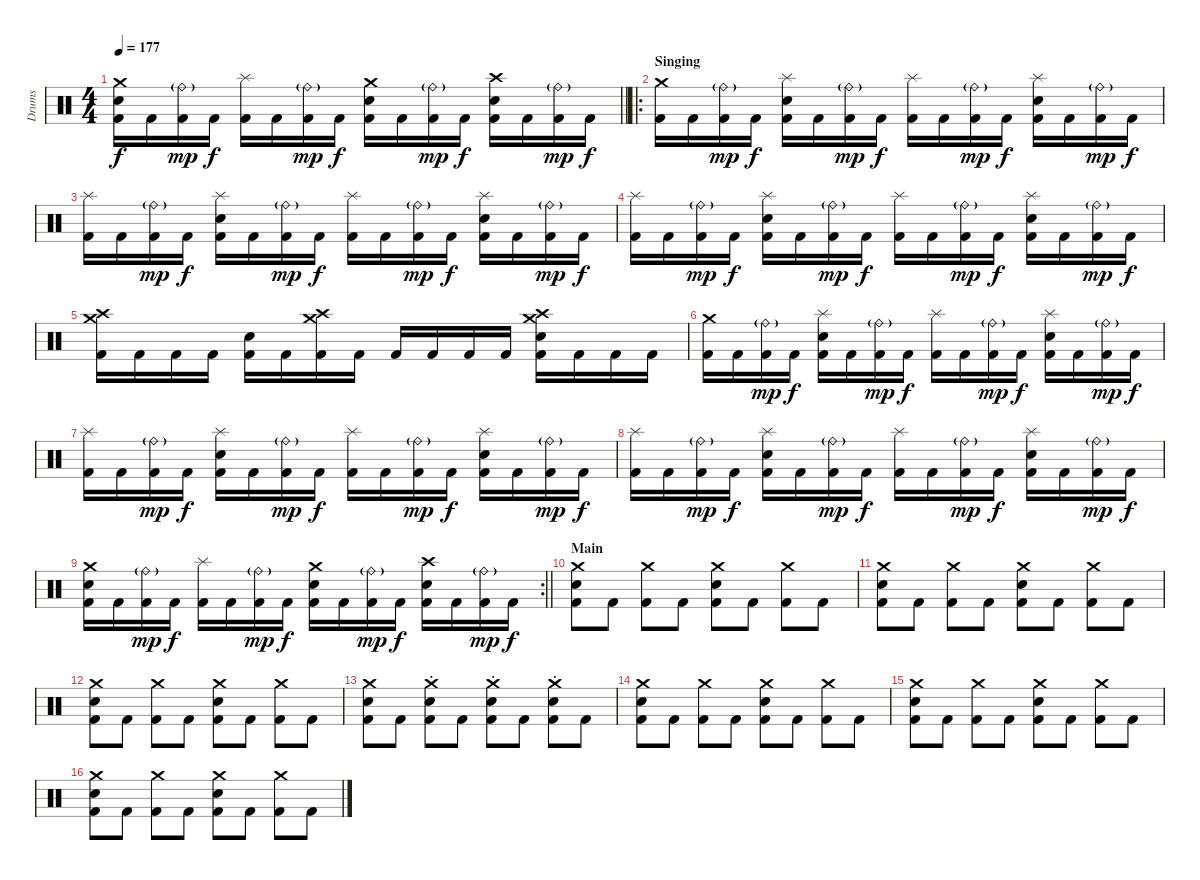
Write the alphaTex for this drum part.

\track ("Drums" "Drums") {instrument percussion}
\staff {score}
\articulation defaults
\ts (4 4)
\tempo 177
\clef neutral
\barLineRight lightlight
\ks c
("Kick (hit) 2" "Snare (hit) 2" "Crash medium (hit)").16{dy f} "Kick (hit) 2".16 ("Kick (hit) 2" "Ride (bell)"{g}).16{dy mp} "Kick (hit) 2".16{dy f} ("Kick (hit) 2" "Splash (hit)").16 "Kick (hit) 2".16 ("Kick (hit) 2" "Ride (bell)"{g}).16{dy mp} "Kick (hit) 2".16{dy f} ("Kick (hit) 2" "Snare (hit) 2" "Crash medium (hit)").16 "Kick (hit) 2".16 ("Kick (hit) 2" "Ride (bell)"{g}).16{dy mp} "Kick (hit) 2".16{dy f} ("Kick (hit) 2" "Snare (hit) 2" "Crash high (hit)").16 "Kick (hit) 2".16 ("Kick (hit) 2" "Ride (bell)"{g}).16{dy mp} "Kick (hit) 2".16{dy f} |
\ro
\section ("" "Singing")
("Kick (hit) 2" "Crash medium (hit)").16 "Kick (hit) 2".16 ("Kick (hit) 2" "Ride (bell)"{g}).16{dy mp} "Kick (hit) 2".16{dy f} ("Kick (hit) 2" "Snare (hit) 2" "Splash (hit)").16 "Kick (hit) 2".16 ("Kick (hit) 2" "Ride (bell)"{g}).16{dy mp} "Kick (hit) 2".16{dy f} ("Kick (hit) 2" "Splash (hit)").16 "Kick (hit) 2".16 ("Kick (hit) 2" "Ride (bell)"{g}).16{dy mp} "Kick (hit) 2".16{dy f} ("Kick (hit) 2" "Snare (hit) 2" "Splash (hit)").16 "Kick (hit) 2".16 ("Kick (hit) 2" "Ride (bell)"{g}).16{dy mp} "Kick (hit) 2".16{dy f} |
("Kick (hit) 2" "Splash (hit)").16 "Kick (hit) 2".16 ("Kick (hit) 2" "Ride (bell)"{g}).16{dy mp} "Kick (hit) 2".16{dy f} ("Kick (hit) 2" "Snare (hit) 2" "Splash (hit)").16 "Kick (hit) 2".16 ("Kick (hit) 2" "Ride (bell)"{g}).16{dy mp} "Kick (hit) 2".16{dy f} ("Kick (hit) 2" "Splash (hit)").16 "Kick (hit) 2".16 ("Kick (hit) 2" "Ride (bell)"{g}).16{dy mp} "Kick (hit) 2".16{dy f} ("Kick (hit) 2" "Snare (hit) 2" "Splash (hit)").16 "Kick (hit) 2".16 ("Kick (hit) 2" "Ride (bell)"{g}).16{dy mp} "Kick (hit) 2".16{dy f} |
("Kick (hit) 2" "Splash (hit)").16 "Kick (hit) 2".16 ("Kick (hit) 2" "Ride (bell)"{g}).16{dy mp} "Kick (hit) 2".16{dy f} ("Kick (hit) 2" "Snare (hit) 2" "Splash (hit)").16 "Kick (hit) 2".16 ("Kick (hit) 2" "Ride (bell)"{g}).16{dy mp} "Kick (hit) 2".16{dy f} ("Kick (hit) 2" "Splash (hit)").16 "Kick (hit) 2".16 ("Kick (hit) 2" "Ride (bell)"{g}).16{dy mp} "Kick (hit) 2".16{dy f} ("Kick (hit) 2" "Snare (hit) 2" "Splash (hit)").16 "Kick (hit) 2".16 ("Kick (hit) 2" "Ride (bell)"{g}).16{dy mp} "Kick (hit) 2".16{dy f} |
("Kick (hit) 2" "Crash high (hit)" "Crash medium (hit)").16 "Kick (hit) 2".16 "Kick (hit) 2".16 "Kick (hit) 2".16 ("Kick (hit) 2" "Snare (hit) 2").16 "Kick (hit) 2".16 ("Kick (hit) 2" "Crash high (hit)" "Crash medium (hit)").16 "Kick (hit) 2".16 "Kick (hit) 2".16 "Kick (hit) 2".16 "Kick (hit) 2".16 "Kick (hit) 2".16 ("Kick (hit) 2" "Snare (hit) 2" "Crash high (hit)" "Crash medium (hit)").16 "Kick (hit) 2".16 "Kick (hit) 2".16 "Kick (hit) 2".16 |
("Kick (hit) 2" "Crash medium (hit)").16 "Kick (hit) 2".16 ("Kick (hit) 2" "Ride (bell)"{g}).16{dy mp} "Kick (hit) 2".16{dy f} ("Kick (hit) 2" "Snare (hit) 2" "Splash (hit)").16 "Kick (hit) 2".16 ("Kick (hit) 2" "Ride (bell)"{g}).16{dy mp} "Kick (hit) 2".16{dy f} ("Kick (hit) 2" "Splash (hit)").16 "Kick (hit) 2".16 ("Kick (hit) 2" "Ride (bell)"{g}).16{dy mp} "Kick (hit) 2".16{dy f} ("Kick (hit) 2" "Snare (hit) 2" "Splash (hit)").16 "Kick (hit) 2".16 ("Kick (hit) 2" "Ride (bell)"{g}).16{dy mp} "Kick (hit) 2".16{dy f} |
("Kick (hit) 2" "Splash (hit)").16 "Kick (hit) 2".16 ("Kick (hit) 2" "Ride (bell)"{g}).16{dy mp} "Kick (hit) 2".16{dy f} ("Kick (hit) 2" "Snare (hit) 2" "Splash (hit)").16 "Kick (hit) 2".16 ("Kick (hit) 2" "Ride (bell)"{g}).16{dy mp} "Kick (hit) 2".16{dy f} ("Kick (hit) 2" "Splash (hit)").16 "Kick (hit) 2".16 ("Kick (hit) 2" "Ride (bell)"{g}).16{dy mp} "Kick (hit) 2".16{dy f} ("Kick (hit) 2" "Snare (hit) 2" "Splash (hit)").16 "Kick (hit) 2".16 ("Kick (hit) 2" "Ride (bell)"{g}).16{dy mp} "Kick (hit) 2".16{dy f} |
("Kick (hit) 2" "Splash (hit)").16 "Kick (hit) 2".16 ("Kick (hit) 2" "Ride (bell)"{g}).16{dy mp} "Kick (hit) 2".16{dy f} ("Kick (hit) 2" "Snare (hit) 2" "Splash (hit)").16 "Kick (hit) 2".16 ("Kick (hit) 2" "Ride (bell)"{g}).16{dy mp} "Kick (hit) 2".16{dy f} ("Kick (hit) 2" "Splash (hit)").16 "Kick (hit) 2".16 ("Kick (hit) 2" "Ride (bell)"{g}).16{dy mp} "Kick (hit) 2".16{dy f} ("Kick (hit) 2" "Snare (hit) 2" "Splash (hit)").16 "Kick (hit) 2".16 ("Kick (hit) 2" "Ride (bell)"{g}).16{dy mp} "Kick (hit) 2".16{dy f} |
\rc 2
\barLineRight lightlight
("Kick (hit) 2" "Snare (hit) 2" "Crash medium (hit)").16 "Kick (hit) 2".16 ("Kick (hit) 2" "Ride (bell)"{g}).16{dy mp} "Kick (hit) 2".16{dy f} ("Kick (hit) 2" "Splash (hit)").16 "Kick (hit) 2".16 ("Kick (hit) 2" "Ride (bell)"{g}).16{dy mp} "Kick (hit) 2".16{dy f} ("Kick (hit) 2" "Snare (hit) 2" "Crash medium (hit)").16 "Kick (hit) 2".16 ("Kick (hit) 2" "Ride (bell)"{g}).16{dy mp} "Kick (hit) 2".16{dy f} ("Kick (hit) 2" "Snare (hit) 2" "Crash high (hit)").16 "Kick (hit) 2".16 ("Kick (hit) 2" "Ride (bell)"{g}).16{dy mp} "Kick (hit) 2".16{dy f} |
\section ("" "Main")
("Kick (hit) 2" "Snare (hit) 2" "Crash medium (hit)").8 "Kick (hit) 2".8 ("Kick (hit) 2" "Crash medium (hit)").8 "Kick (hit) 2".8 ("Kick (hit) 2" "Snare (hit) 2" "Crash medium (hit)").8 "Kick (hit) 2".8 ("Kick (hit) 2" "Crash medium (hit)").8 "Kick (hit) 2".8 |
("Kick (hit) 2" "Snare (hit) 2" "Crash medium (hit)").8 "Kick (hit) 2".8 ("Kick (hit) 2" "Crash medium (hit)").8 "Kick (hit) 2".8 ("Kick (hit) 2" "Snare (hit) 2" "Crash medium (hit)").8 "Kick (hit) 2".8 ("Kick (hit) 2" "Crash medium (hit)").8 "Kick (hit) 2".8 |
("Kick (hit) 2" "Snare (hit) 2" "Crash medium (hit)").8 "Kick (hit) 2".8 ("Kick (hit) 2" "Crash medium (hit)").8 "Kick (hit) 2".8 ("Kick (hit) 2" "Snare (hit) 2" "Crash medium (hit)").8 "Kick (hit) 2".8 ("Kick (hit) 2" "Crash medium (hit)").8 "Kick (hit) 2".8 |
("Kick (hit) 2" "Snare (hit) 2" "Crash medium (hit)").8 "Kick (hit) 2".8 ("Kick (hit) 2" "Snare (hit) 2" "Crash medium (hit)"{st}).8 "Kick (hit) 2".8 ("Kick (hit) 2" "Snare (hit) 2" "Crash medium (hit)"{st}).8 "Kick (hit) 2".8 ("Kick (hit) 2" "Snare (hit) 2" "Crash medium (hit)"{st}).8 "Kick (hit) 2".8 |
("Kick (hit) 2" "Snare (hit) 2" "Crash medium (hit)").8 "Kick (hit) 2".8 ("Kick (hit) 2" "Crash medium (hit)").8 "Kick (hit) 2".8 ("Kick (hit) 2" "Snare (hit) 2" "Crash medium (hit)").8 "Kick (hit) 2".8 ("Kick (hit) 2" "Crash medium (hit)").8 "Kick (hit) 2".8 |
("Kick (hit) 2" "Snare (hit) 2" "Crash medium (hit)").8 "Kick (hit) 2".8 ("Kick (hit) 2" "Crash medium (hit)").8 "Kick (hit) 2".8 ("Kick (hit) 2" "Snare (hit) 2" "Crash medium (hit)").8 "Kick (hit) 2".8 ("Kick (hit) 2" "Crash medium (hit)").8 "Kick (hit) 2".8 |
("Kick (hit) 2" "Snare (hit) 2" "Crash medium (hit)").8 "Kick (hit) 2".8 ("Kick (hit) 2" "Crash medium (hit)").8 "Kick (hit) 2".8 ("Kick (hit) 2" "Snare (hit) 2" "Crash medium (hit)").8 "Kick (hit) 2".8 ("Kick (hit) 2" "Crash medium (hit)").8 "Kick (hit) 2".8
